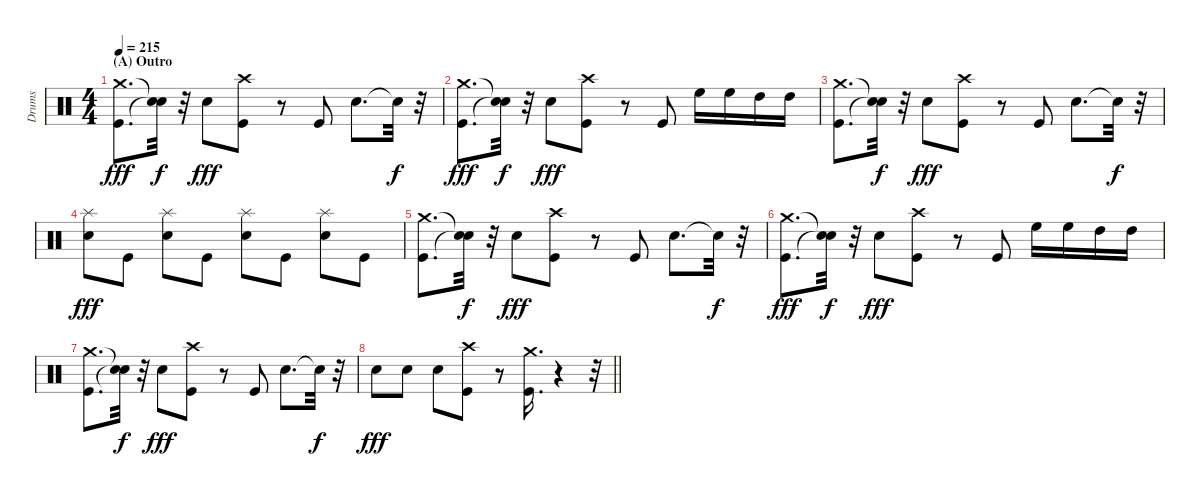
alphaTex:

\track ("Drums" "Drums") {instrument percussion}
\staff {score}
\articulation defaults
\ts (4 4)
\section ("" "(A) Outro")
\tempo 215
\clef neutral
\ks c
("Kick (hit)" "Crash medium (hit)").8{d dy fff} ("Snare (hit)"{t} "Snare (hit)"{t}).32{dy f} r.32 "Electric Snare (hit)".8{dy fff} ("Crash high (hit)" "Kick (hit)").8 r.8 "Kick (hit)".8 "Electric Snare (hit)".8{d} "Snare (hit)"{t}.32{dy f} r.32 |
("Kick (hit)" "Crash medium (hit)").8{d dy fff} ("Snare (hit)"{t} "Snare (hit)"{t}).32{dy f} r.32 "Electric Snare (hit)".8{dy fff} ("Crash high (hit)" "Kick (hit)").8 r.8 "Kick (hit)".8 "High Floor Tom (hit)".16 "High Floor Tom (hit)".16 "High Tom (hit)".16 "High Tom (hit)".16 |
("Kick (hit)" "Crash medium (hit)").8{d} ("Snare (hit)"{t} "Snare (hit)"{t}).32{dy f} r.32 "Electric Snare (hit)".8{dy fff} ("Crash high (hit)" "Kick (hit)").8 r.8 "Kick (hit)".8 "Electric Snare (hit)".8{d} "Snare (hit)"{t}.32{dy f} r.32 |
("Splash (hit)" "Electric Snare (hit)").8{dy fff} "Kick (hit)".8 ("Splash (hit)" "Electric Snare (hit)").8 "Kick (hit)".8 ("Splash (hit)" "Electric Snare (hit)").8 "Kick (hit)".8 ("Splash (hit)" "Electric Snare (hit)").8 "Kick (hit)".8 |
("Kick (hit)" "Crash medium (hit)").8{d} ("Snare (hit)"{t} "Snare (hit)"{t}).32{dy f} r.32 "Electric Snare (hit)".8{dy fff} ("Crash high (hit)" "Kick (hit)").8 r.8 "Kick (hit)".8 "Electric Snare (hit)".8{d} "Snare (hit)"{t}.32{dy f} r.32 |
("Kick (hit)" "Crash medium (hit)").8{d dy fff} ("Snare (hit)"{t} "Snare (hit)"{t}).32{dy f} r.32 "Electric Snare (hit)".8{dy fff} ("Crash high (hit)" "Kick (hit)").8 r.8 "Kick (hit)".8 "High Floor Tom (hit)".16 "High Floor Tom (hit)".16 "High Tom (hit)".16 "High Tom (hit)".16 |
("Kick (hit)" "Crash medium (hit)").8{d} ("Snare (hit)"{t} "Snare (hit)"{t}).32{dy f} r.32 "Electric Snare (hit)".8{dy fff} ("Crash high (hit)" "Kick (hit)").8 r.8 "Kick (hit)".8 "Electric Snare (hit)".8{d} "Snare (hit)"{t}.32{dy f} r.32 |
\barLineRight lightlight "Electric Snare (hit)".8{dy fff} "Electric Snare (hit)".8 "Electric Snare (hit)".8
("Crash high (hit)" "Kick (hit)").8 r.8 ("Crash medium (hit)" "Kick (hit)").16{d} r.4 r.32
